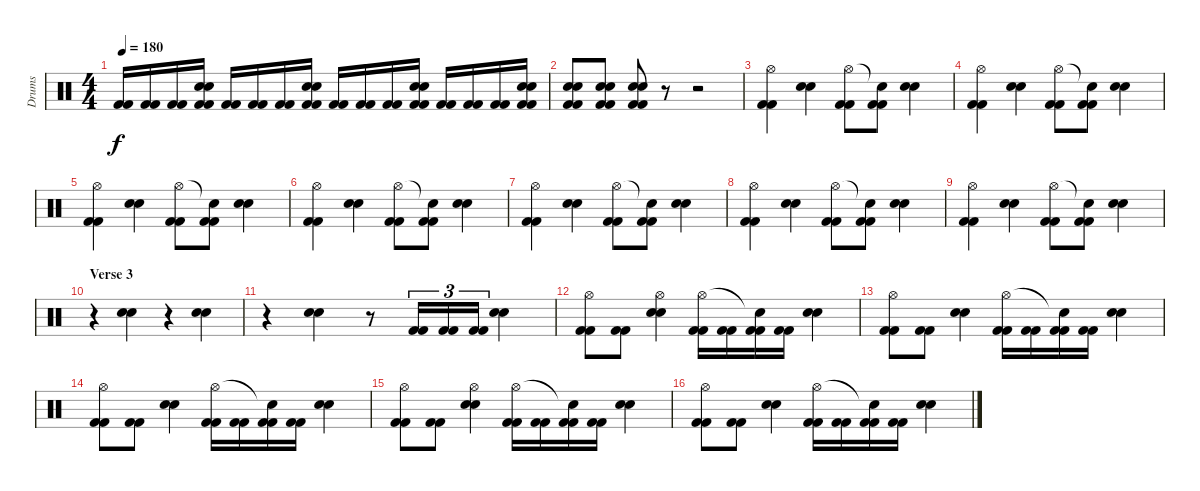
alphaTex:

\track ("Drums" "Drums") {instrument percussion}
\staff {score}
\articulation defaults
\ts (4 4)
\tempo 180
\clef neutral
\ks c
("Kick (hit) 2" "Kick (hit) 2").16{dy f} ("Kick (hit) 2" "Kick (hit) 2").16 ("Kick (hit) 2" "Kick (hit) 2").16 ("Electric Snare (hit)" "Electric Snare (hit)" "Kick (hit) 2" "Kick (hit) 2").16 ("Kick (hit) 2" "Kick (hit) 2").16 ("Kick (hit) 2" "Kick (hit) 2").16 ("Kick (hit) 2" "Kick (hit) 2").16 ("Electric Snare (hit)" "Electric Snare (hit)" "Kick (hit) 2" "Kick (hit) 2").16 ("Kick (hit) 2" "Kick (hit) 2").16 ("Kick (hit) 2" "Kick (hit) 2").16 ("Kick (hit) 2" "Kick (hit) 2").16 ("Electric Snare (hit)" "Electric Snare (hit)" "Kick (hit) 2" "Kick (hit) 2").16 ("Kick (hit) 2" "Kick (hit) 2").16 ("Kick (hit) 2" "Kick (hit) 2").16 ("Kick (hit) 2" "Kick (hit) 2").16 ("Electric Snare (hit)" "Electric Snare (hit)" "Kick (hit) 2" "Kick (hit) 2").16 |
("Kick (hit) 2" "Kick (hit) 2" "Snare (hit) 2" "Snare (hit) 2").8 ("Kick (hit) 2" "Kick (hit) 2" "Electric Snare (hit)" "Electric Snare (hit)").8 ("Kick (hit) 2" "Kick (hit) 2" "Snare (hit) 2" "Snare (hit) 2").8 r.8 r.2 |
("Kick (hit) 2" "Kick (hit) 2" "Hi-Hat (open)").4 ("Electric Snare (hit)" "Electric Snare (hit)").4 ("Kick (hit) 2" "Kick (hit) 2" "Hi-Hat (open)").8 ("Kick (hit) 2" "Kick (hit) 2" "Snare (hit)"{t}).8 ("Electric Snare (hit)" "Electric Snare (hit)").4 |
("Kick (hit) 2" "Kick (hit) 2" "Hi-Hat (open)").4 ("Electric Snare (hit)" "Electric Snare (hit)").4 ("Kick (hit) 2" "Kick (hit) 2" "Hi-Hat (open)").8 ("Kick (hit) 2" "Kick (hit) 2" "Snare (hit)"{t}).8 ("Electric Snare (hit)" "Electric Snare (hit)").4 |
("Kick (hit) 2" "Kick (hit) 2" "Hi-Hat (open)").4 ("Electric Snare (hit)" "Electric Snare (hit)").4 ("Kick (hit) 2" "Kick (hit) 2" "Hi-Hat (open)").8 ("Kick (hit) 2" "Kick (hit) 2" "Snare (hit)"{t}).8 ("Electric Snare (hit)" "Electric Snare (hit)").4 |
("Kick (hit) 2" "Kick (hit) 2" "Hi-Hat (open)").4 ("Electric Snare (hit)" "Electric Snare (hit)").4 ("Kick (hit) 2" "Kick (hit) 2" "Hi-Hat (open)").8 ("Kick (hit) 2" "Kick (hit) 2" "Snare (hit)"{t}).8 ("Electric Snare (hit)" "Electric Snare (hit)").4 |
("Kick (hit) 2" "Kick (hit) 2" "Hi-Hat (open)").4 ("Electric Snare (hit)" "Electric Snare (hit)").4 ("Kick (hit) 2" "Kick (hit) 2" "Hi-Hat (open)").8 ("Kick (hit) 2" "Kick (hit) 2" "Snare (hit)"{t}).8 ("Electric Snare (hit)" "Electric Snare (hit)").4 |
("Kick (hit) 2" "Kick (hit) 2" "Hi-Hat (open)").4 ("Electric Snare (hit)" "Electric Snare (hit)").4 ("Kick (hit) 2" "Kick (hit) 2" "Hi-Hat (open)").8 ("Kick (hit) 2" "Kick (hit) 2" "Snare (hit)"{t}).8 ("Electric Snare (hit)" "Electric Snare (hit)").4 |
("Kick (hit) 2" "Kick (hit) 2" "Hi-Hat (open)").4 ("Electric Snare (hit)" "Electric Snare (hit)").4 ("Kick (hit) 2" "Kick (hit) 2" "Hi-Hat (open)").8 ("Kick (hit) 2" "Kick (hit) 2" "Snare (hit)"{t}).8 ("Electric Snare (hit)" "Electric Snare (hit)").4 |
\section ("" "Verse 3")
r.4 ("Electric Snare (hit)" "Electric Snare (hit)").4 r.4 ("Electric Snare (hit)" "Electric Snare (hit)").4 |
r.4 ("Electric Snare (hit)" "Electric Snare (hit)").4 r.8 ("Kick (hit) 2" "Kick (hit) 2").16{tu (3 2)} ("Kick (hit) 2" "Kick (hit) 2").16{tu (3 2)} ("Kick (hit) 2" "Kick (hit) 2").16{tu (3 2)} ("Electric Snare (hit)" "Electric Snare (hit)").4 |
("Kick (hit) 2" "Kick (hit) 2" "Hi-Hat (open)").8 ("Kick (hit) 2" "Kick (hit) 2").8 ("Electric Snare (hit)" "Electric Snare (hit)" "Hi-Hat (open)").4 ("Kick (hit) 2" "Kick (hit) 2" "Hi-Hat (open)").16 ("Kick (hit) 2" "Kick (hit) 2").16 ("Kick (hit) 2" "Kick (hit) 2" "Snare (hit)"{t}).16 ("Kick (hit) 2" "Kick (hit) 2").16 ("Electric Snare (hit)" "Electric Snare (hit)").4 |
("Kick (hit) 2" "Kick (hit) 2" "Hi-Hat (open)").8 ("Kick (hit) 2" "Kick (hit) 2").8 ("Electric Snare (hit)" "Electric Snare (hit)").4 ("Kick (hit) 2" "Kick (hit) 2" "Hi-Hat (open)").16 ("Kick (hit) 2" "Kick (hit) 2").16 ("Kick (hit) 2" "Kick (hit) 2" "Snare (hit)"{t}).16 ("Kick (hit) 2" "Kick (hit) 2").16 ("Electric Snare (hit)" "Electric Snare (hit)").4 |
("Kick (hit) 2" "Kick (hit) 2" "Hi-Hat (open)").8 ("Kick (hit) 2" "Kick (hit) 2").8 ("Electric Snare (hit)" "Electric Snare (hit)").4 ("Kick (hit) 2" "Kick (hit) 2" "Hi-Hat (open)").16 ("Kick (hit) 2" "Kick (hit) 2").16 ("Kick (hit) 2" "Kick (hit) 2" "Snare (hit)"{t}).16 ("Kick (hit) 2" "Kick (hit) 2").16 ("Electric Snare (hit)" "Electric Snare (hit)").4 |
("Kick (hit) 2" "Kick (hit) 2" "Hi-Hat (open)").8 ("Kick (hit) 2" "Kick (hit) 2").8 ("Electric Snare (hit)" "Electric Snare (hit)" "Hi-Hat (open)").4 ("Kick (hit) 2" "Kick (hit) 2" "Hi-Hat (open)").16 ("Kick (hit) 2" "Kick (hit) 2").16 ("Kick (hit) 2" "Kick (hit) 2" "Snare (hit)"{t}).16 ("Kick (hit) 2" "Kick (hit) 2").16 ("Electric Snare (hit)" "Electric Snare (hit)").4 |
("Kick (hit) 2" "Kick (hit) 2" "Hi-Hat (open)").8 ("Kick (hit) 2" "Kick (hit) 2").8 ("Electric Snare (hit)" "Electric Snare (hit)").4 ("Kick (hit) 2" "Kick (hit) 2" "Hi-Hat (open)").16 ("Kick (hit) 2" "Kick (hit) 2").16 ("Kick (hit) 2" "Kick (hit) 2" "Snare (hit)"{t}).16 ("Kick (hit) 2" "Kick (hit) 2").16 ("Electric Snare (hit)" "Electric Snare (hit)").4
